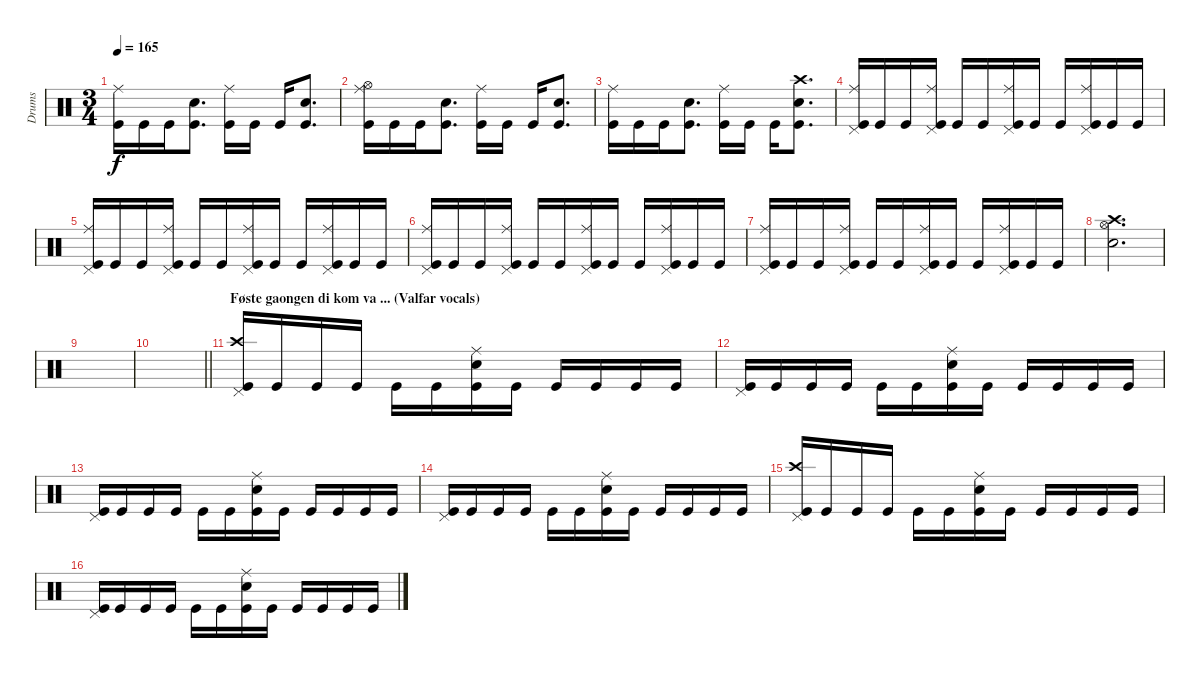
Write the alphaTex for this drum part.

\track ("Drums" "Drums") {instrument percussion}
\staff {score}
\articulation defaults
\ts (3 4)
\tempo 165
\clef neutral
\ks c
("Ride (middle)" "Kick (hit)").16{dy f} "Kick (hit)".16 "Kick (hit)".16 ("Snare (hit) 2" "Kick (hit)").8{d} ("Ride (middle)" "Kick (hit)").16 "Kick (hit)".16 "Kick (hit)".16 ("Snare (hit) 2" "Kick (hit)").8{d} |
("Hi-Hat (open)" "Ride (middle)" "Kick (hit)").16 "Kick (hit)".16 "Kick (hit)".16 ("Snare (hit) 2" "Kick (hit)").8{d} ("Ride (middle)" "Kick (hit)").16 "Kick (hit)".16 "Kick (hit)".16 ("Snare (hit) 2" "Kick (hit)").8{d} |
("Ride (middle)" "Kick (hit)").16 "Kick (hit)".16 "Kick (hit)".16 ("Snare (hit) 2" "Kick (hit)").8{d} ("Ride (middle)" "Kick (hit)").16 "Kick (hit)".16 "Kick (hit)".16 ("Crash high (hit)" "Snare (hit) 2" "Kick (hit)").8{d} |
("Pedal Hi-Hat (hit)" "Ride (middle)" "Kick (hit)").16 "Kick (hit)".16 "Kick (hit)".16 ("Pedal Hi-Hat (hit)" "Ride (middle)" "Kick (hit)").16 "Kick (hit)".16 "Kick (hit)".16 ("Pedal Hi-Hat (hit)" "Ride (middle)" "Kick (hit)").16 "Kick (hit)".16 "Kick (hit)".16 ("Pedal Hi-Hat (hit)" "Ride (middle)" "Kick (hit)").16 "Kick (hit)".16 "Kick (hit)".16 |
("Pedal Hi-Hat (hit)" "Ride (middle)" "Kick (hit)").16 "Kick (hit)".16 "Kick (hit)".16 ("Pedal Hi-Hat (hit)" "Ride (middle)" "Kick (hit)").16 "Kick (hit)".16 "Kick (hit)".16 ("Pedal Hi-Hat (hit)" "Ride (middle)" "Kick (hit)").16 "Kick (hit)".16 "Kick (hit)".16 ("Pedal Hi-Hat (hit)" "Ride (middle)" "Kick (hit)").16 "Kick (hit)".16 "Kick (hit)".16 |
("Pedal Hi-Hat (hit)" "Ride (middle)" "Kick (hit)").16 "Kick (hit)".16 "Kick (hit)".16 ("Pedal Hi-Hat (hit)" "Ride (middle)" "Kick (hit)").16 "Kick (hit)".16 "Kick (hit)".16 ("Pedal Hi-Hat (hit)" "Ride (middle)" "Kick (hit)").16 "Kick (hit)".16 "Kick (hit)".16 ("Pedal Hi-Hat (hit)" "Ride (middle)" "Kick (hit)").16 "Kick (hit)".16 "Kick (hit)".16 |
("Pedal Hi-Hat (hit)" "Ride (middle)" "Kick (hit)").16 "Kick (hit)".16 "Kick (hit)".16 ("Pedal Hi-Hat (hit)" "Ride (middle)" "Kick (hit)").16 "Kick (hit)".16 "Kick (hit)".16 ("Pedal Hi-Hat (hit)" "Ride (middle)" "Kick (hit)").16 "Kick (hit)".16 "Kick (hit)".16 ("Pedal Hi-Hat (hit)" "Ride (middle)" "Kick (hit)").16 "Kick (hit)".16 "Kick (hit)".16 |
("Crash high (hit)" "Hi-Hat (open)" "Snare (hit) 2").2{d} |
|
\barLineRight lightlight
|
\section ("" "Føste gaongen di kom va ... (Valfar vocals)")
("Crash high (hit)" "Pedal Hi-Hat (hit)" "Kick (hit)").16 "Kick (hit)".16 "Kick (hit)".16 "Kick (hit)".16 "Kick (hit)".16 "Kick (hit)".16 ("Ride (middle)" "Snare (hit) 2" "Kick (hit)").16 "Kick (hit)".16 "Kick (hit)".16 "Kick (hit)".16 "Kick (hit)".16 "Kick (hit)".16 |
("Pedal Hi-Hat (hit)" "Kick (hit)").16 "Kick (hit)".16 "Kick (hit)".16 "Kick (hit)".16 "Kick (hit)".16 "Kick (hit)".16 ("Ride (middle)" "Snare (hit) 2" "Kick (hit)").16 "Kick (hit)".16 "Kick (hit)".16 "Kick (hit)".16 "Kick (hit)".16 "Kick (hit)".16 |
("Pedal Hi-Hat (hit)" "Kick (hit)").16 "Kick (hit)".16 "Kick (hit)".16 "Kick (hit)".16 "Kick (hit)".16 "Kick (hit)".16 ("Ride (middle)" "Snare (hit) 2" "Kick (hit)").16 "Kick (hit)".16 "Kick (hit)".16 "Kick (hit)".16 "Kick (hit)".16 "Kick (hit)".16 |
("Pedal Hi-Hat (hit)" "Kick (hit)").16 "Kick (hit)".16 "Kick (hit)".16 "Kick (hit)".16 "Kick (hit)".16 "Kick (hit)".16 ("Ride (middle)" "Snare (hit) 2" "Kick (hit)").16 "Kick (hit)".16 "Kick (hit)".16 "Kick (hit)".16 "Kick (hit)".16 "Kick (hit)".16 |
("Crash high (hit)" "Pedal Hi-Hat (hit)" "Kick (hit)").16 "Kick (hit)".16 "Kick (hit)".16 "Kick (hit)".16 "Kick (hit)".16 "Kick (hit)".16 ("Ride (middle)" "Snare (hit) 2" "Kick (hit)").16 "Kick (hit)".16 "Kick (hit)".16 "Kick (hit)".16 "Kick (hit)".16 "Kick (hit)".16 |
("Pedal Hi-Hat (hit)" "Kick (hit)").16 "Kick (hit)".16 "Kick (hit)".16 "Kick (hit)".16 "Kick (hit)".16 "Kick (hit)".16 ("Ride (middle)" "Snare (hit) 2" "Kick (hit)").16 "Kick (hit)".16 "Kick (hit)".16 "Kick (hit)".16 "Kick (hit)".16 "Kick (hit)".16
